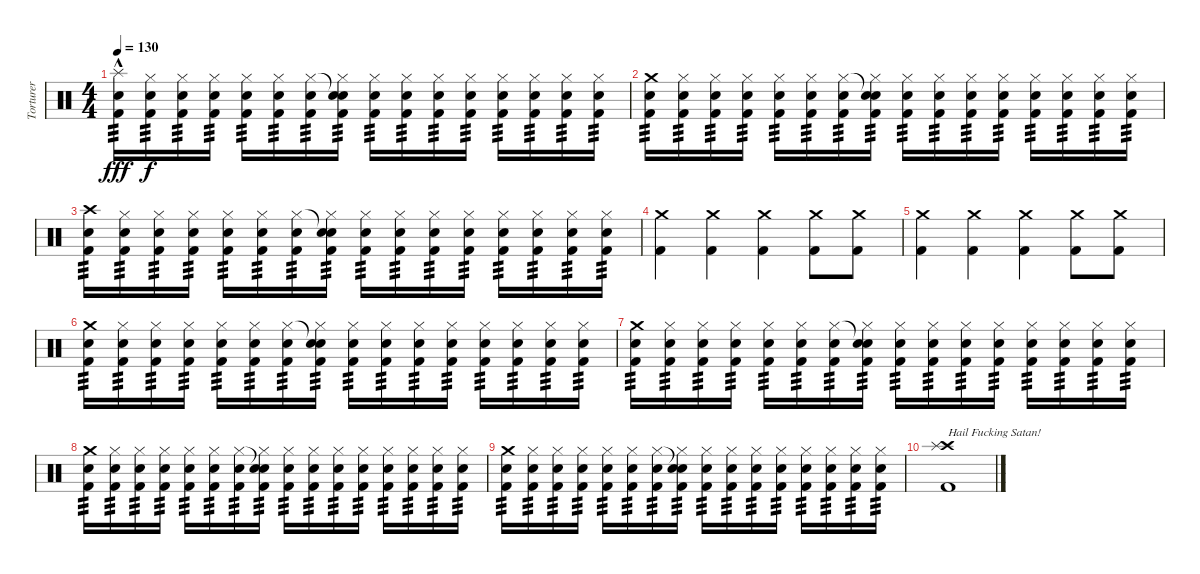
\track ("Torturer" "Torturer") {instrument percussion}
\staff {score}
\articulation defaults
\ts (4 4)
\tempo 130
\clef neutral
\ks c
("Splash (hit)"{hac} "Snare (hit) 2" "Kick (hit) 2").16{tp 3 dy fff} ("Hi-Hat (closed)" "Snare (hit) 2" "Kick (hit) 2").16{tp 3 dy f} ("Hi-Hat (closed)" "Snare (hit) 2" "Kick (hit) 2").16{tp 3} ("Hi-Hat (closed)" "Snare (hit) 2" "Kick (hit) 2").16{tp 3} ("Hi-Hat (closed)" "Snare (hit) 2" "Kick (hit) 2").16{tp 3} ("Hi-Hat (closed)" "Snare (hit) 2" "Kick (hit) 2").16{tp 3} ("Hi-Hat (closed)" "Snare (hit) 2" "Kick (hit) 2").16{tp 3} ("Snare (hit)"{t} "Hi-Hat (closed)" "Snare (hit) 2" "Kick (hit) 2").16{tp 3} ("Hi-Hat (closed)" "Snare (hit) 2" "Kick (hit) 2").16{tp 3} ("Hi-Hat (closed)" "Snare (hit) 2" "Kick (hit) 2").16{tp 3} ("Hi-Hat (closed)" "Snare (hit) 2" "Kick (hit) 2").16{tp 3} ("Hi-Hat (closed)" "Snare (hit) 2" "Kick (hit) 2").16{tp 3} ("Hi-Hat (closed)" "Snare (hit) 2" "Kick (hit) 2").16{tp 3} ("Hi-Hat (closed)" "Snare (hit) 2" "Kick (hit) 2").16{tp 3} ("Hi-Hat (closed)" "Snare (hit) 2" "Kick (hit) 2").16{tp 3} ("Hi-Hat (closed)" "Snare (hit) 2" "Kick (hit) 2").16{tp 3} |
("Crash medium (hit)" "Snare (hit) 2" "Kick (hit) 2").16{tp 3} ("Hi-Hat (closed)" "Snare (hit) 2" "Kick (hit) 2").16{tp 3} ("Hi-Hat (closed)" "Snare (hit) 2" "Kick (hit) 2").16{tp 3} ("Hi-Hat (closed)" "Snare (hit) 2" "Kick (hit) 2").16{tp 3} ("Hi-Hat (closed)" "Snare (hit) 2" "Kick (hit) 2").16{tp 3} ("Hi-Hat (closed)" "Snare (hit) 2" "Kick (hit) 2").16{tp 3} ("Hi-Hat (closed)" "Snare (hit) 2" "Kick (hit) 2").16{tp 3} ("Snare (hit)"{t} "Hi-Hat (closed)" "Snare (hit) 2" "Kick (hit) 2").16{tp 3} ("Hi-Hat (closed)" "Snare (hit) 2" "Kick (hit) 2").16{tp 3} ("Hi-Hat (closed)" "Snare (hit) 2" "Kick (hit) 2").16{tp 3} ("Hi-Hat (closed)" "Snare (hit) 2" "Kick (hit) 2").16{tp 3} ("Hi-Hat (closed)" "Snare (hit) 2" "Kick (hit) 2").16{tp 3} ("Hi-Hat (closed)" "Snare (hit) 2" "Kick (hit) 2").16{tp 3} ("Hi-Hat (closed)" "Snare (hit) 2" "Kick (hit) 2").16{tp 3} ("Hi-Hat (closed)" "Snare (hit) 2" "Kick (hit) 2").16{tp 3} ("Hi-Hat (closed)" "Snare (hit) 2" "Kick (hit) 2").16{tp 3} |
("Crash high (hit)" "Snare (hit) 2" "Kick (hit) 2").16{tp 3} ("Hi-Hat (closed)" "Snare (hit) 2" "Kick (hit) 2").16{tp 3} ("Hi-Hat (closed)" "Snare (hit) 2" "Kick (hit) 2").16{tp 3} ("Hi-Hat (closed)" "Snare (hit) 2" "Kick (hit) 2").16{tp 3} ("Hi-Hat (closed)" "Snare (hit) 2" "Kick (hit) 2").16{tp 3} ("Hi-Hat (closed)" "Snare (hit) 2" "Kick (hit) 2").16{tp 3} ("Hi-Hat (closed)" "Snare (hit) 2" "Kick (hit) 2").16{tp 3} ("Snare (hit)"{t} "Hi-Hat (closed)" "Snare (hit) 2" "Kick (hit) 2").16{tp 3} ("Hi-Hat (closed)" "Snare (hit) 2" "Kick (hit) 2").16{tp 3} ("Hi-Hat (closed)" "Snare (hit) 2" "Kick (hit) 2").16{tp 3} ("Hi-Hat (closed)" "Snare (hit) 2" "Kick (hit) 2").16{tp 3} ("Hi-Hat (closed)" "Snare (hit) 2" "Kick (hit) 2").16{tp 3} ("Hi-Hat (closed)" "Snare (hit) 2" "Kick (hit) 2").16{tp 3} ("Hi-Hat (closed)" "Snare (hit) 2" "Kick (hit) 2").16{tp 3} ("Hi-Hat (closed)" "Snare (hit) 2" "Kick (hit) 2").16{tp 3} ("Hi-Hat (closed)" "Snare (hit) 2" "Kick (hit) 2").16{tp 3} |
("Crash medium (hit)" "Kick (hit) 2").4 ("Crash medium (hit)" "Kick (hit) 2").4 ("Crash medium (hit)" "Kick (hit) 2").4 ("Crash medium (hit)" "Kick (hit) 2").8 ("Crash medium (hit)" "Kick (hit) 2").8 |
("Crash medium (hit)" "Kick (hit) 2").4 ("Crash medium (hit)" "Kick (hit) 2").4 ("Crash medium (hit)" "Kick (hit) 2").4 ("Crash medium (hit)" "Kick (hit) 2").8 ("Crash medium (hit)" "Kick (hit) 2").8 |
("Crash medium (hit)" "Snare (hit) 2" "Kick (hit) 2").16{tp 3} ("Hi-Hat (closed)" "Snare (hit) 2" "Kick (hit) 2").16{tp 3} ("Hi-Hat (closed)" "Snare (hit) 2" "Kick (hit) 2").16{tp 3} ("Hi-Hat (closed)" "Snare (hit) 2" "Kick (hit) 2").16{tp 3} ("Hi-Hat (closed)" "Snare (hit) 2" "Kick (hit) 2").16{tp 3} ("Hi-Hat (closed)" "Snare (hit) 2" "Kick (hit) 2").16{tp 3} ("Hi-Hat (closed)" "Snare (hit) 2" "Kick (hit) 2").16{tp 3} ("Snare (hit)"{t} "Hi-Hat (closed)" "Snare (hit) 2" "Kick (hit) 2").16{tp 3} ("Hi-Hat (closed)" "Snare (hit) 2" "Kick (hit) 2").16{tp 3} ("Hi-Hat (closed)" "Snare (hit) 2" "Kick (hit) 2").16{tp 3} ("Hi-Hat (closed)" "Snare (hit) 2" "Kick (hit) 2").16{tp 3} ("Hi-Hat (closed)" "Snare (hit) 2" "Kick (hit) 2").16{tp 3} ("Hi-Hat (closed)" "Snare (hit) 2" "Kick (hit) 2").16{tp 3} ("Hi-Hat (closed)" "Snare (hit) 2" "Kick (hit) 2").16{tp 3} ("Hi-Hat (closed)" "Snare (hit) 2" "Kick (hit) 2").16{tp 3} ("Hi-Hat (closed)" "Snare (hit) 2" "Kick (hit) 2").16{tp 3} |
("Crash medium (hit)" "Snare (hit) 2" "Kick (hit) 2").16{tp 3} ("Hi-Hat (closed)" "Snare (hit) 2" "Kick (hit) 2").16{tp 3} ("Hi-Hat (closed)" "Snare (hit) 2" "Kick (hit) 2").16{tp 3} ("Hi-Hat (closed)" "Snare (hit) 2" "Kick (hit) 2").16{tp 3} ("Hi-Hat (closed)" "Snare (hit) 2" "Kick (hit) 2").16{tp 3} ("Hi-Hat (closed)" "Snare (hit) 2" "Kick (hit) 2").16{tp 3} ("Hi-Hat (closed)" "Snare (hit) 2" "Kick (hit) 2").16{tp 3} ("Snare (hit)"{t} "Hi-Hat (closed)" "Snare (hit) 2" "Kick (hit) 2").16{tp 3} ("Hi-Hat (closed)" "Snare (hit) 2" "Kick (hit) 2").16{tp 3} ("Hi-Hat (closed)" "Snare (hit) 2" "Kick (hit) 2").16{tp 3} ("Hi-Hat (closed)" "Snare (hit) 2" "Kick (hit) 2").16{tp 3} ("Hi-Hat (closed)" "Snare (hit) 2" "Kick (hit) 2").16{tp 3} ("Hi-Hat (closed)" "Snare (hit) 2" "Kick (hit) 2").16{tp 3} ("Hi-Hat (closed)" "Snare (hit) 2" "Kick (hit) 2").16{tp 3} ("Hi-Hat (closed)" "Snare (hit) 2" "Kick (hit) 2").16{tp 3} ("Hi-Hat (closed)" "Snare (hit) 2" "Kick (hit) 2").16{tp 3} |
("Crash medium (hit)" "Snare (hit) 2" "Kick (hit) 2").16{tp 3} ("Hi-Hat (closed)" "Snare (hit) 2" "Kick (hit) 2").16{tp 3} ("Hi-Hat (closed)" "Snare (hit) 2" "Kick (hit) 2").16{tp 3} ("Hi-Hat (closed)" "Snare (hit) 2" "Kick (hit) 2").16{tp 3} ("Hi-Hat (closed)" "Snare (hit) 2" "Kick (hit) 2").16{tp 3} ("Hi-Hat (closed)" "Snare (hit) 2" "Kick (hit) 2").16{tp 3} ("Hi-Hat (closed)" "Snare (hit) 2" "Kick (hit) 2").16{tp 3} ("Snare (hit)"{t} "Hi-Hat (closed)" "Snare (hit) 2" "Kick (hit) 2").16{tp 3} ("Hi-Hat (closed)" "Snare (hit) 2" "Kick (hit) 2").16{tp 3} ("Hi-Hat (closed)" "Snare (hit) 2" "Kick (hit) 2").16{tp 3} ("Hi-Hat (closed)" "Snare (hit) 2" "Kick (hit) 2").16{tp 3} ("Hi-Hat (closed)" "Snare (hit) 2" "Kick (hit) 2").16{tp 3} ("Hi-Hat (closed)" "Snare (hit) 2" "Kick (hit) 2").16{tp 3} ("Hi-Hat (closed)" "Snare (hit) 2" "Kick (hit) 2").16{tp 3} ("Hi-Hat (closed)" "Snare (hit) 2" "Kick (hit) 2").16{tp 3} ("Hi-Hat (closed)" "Snare (hit) 2" "Kick (hit) 2").16{tp 3} |
("Crash medium (hit)" "Snare (hit) 2" "Kick (hit) 2").16{tp 3} ("Hi-Hat (closed)" "Snare (hit) 2" "Kick (hit) 2").16{tp 3} ("Hi-Hat (closed)" "Snare (hit) 2" "Kick (hit) 2").16{tp 3} ("Hi-Hat (closed)" "Snare (hit) 2" "Kick (hit) 2").16{tp 3} ("Hi-Hat (closed)" "Snare (hit) 2" "Kick (hit) 2").16{tp 3} ("Hi-Hat (closed)" "Snare (hit) 2" "Kick (hit) 2").16{tp 3} ("Hi-Hat (closed)" "Snare (hit) 2" "Kick (hit) 2").16{tp 3} ("Snare (hit)"{t} "Hi-Hat (closed)" "Snare (hit) 2" "Kick (hit) 2").16{tp 3} ("Hi-Hat (closed)" "Snare (hit) 2" "Kick (hit) 2").16{tp 3} ("Hi-Hat (closed)" "Snare (hit) 2" "Kick (hit) 2").16{tp 3} ("Hi-Hat (closed)" "Snare (hit) 2" "Kick (hit) 2").16{tp 3} ("Hi-Hat (closed)" "Snare (hit) 2" "Kick (hit) 2").16{tp 3} ("Hi-Hat (closed)" "Snare (hit) 2" "Kick (hit) 2").16{tp 3} ("Hi-Hat (closed)" "Snare (hit) 2" "Kick (hit) 2").16{tp 3} ("Hi-Hat (closed)" "Snare (hit) 2" "Kick (hit) 2").16{tp 3} ("Hi-Hat (closed)" "Snare (hit) 2" "Kick (hit) 2").16{tp 3} |
("Crash high (hit)" "Splash (hit)" "Kick (hit) 2").1{txt "Hail Fucking Satan!"}
